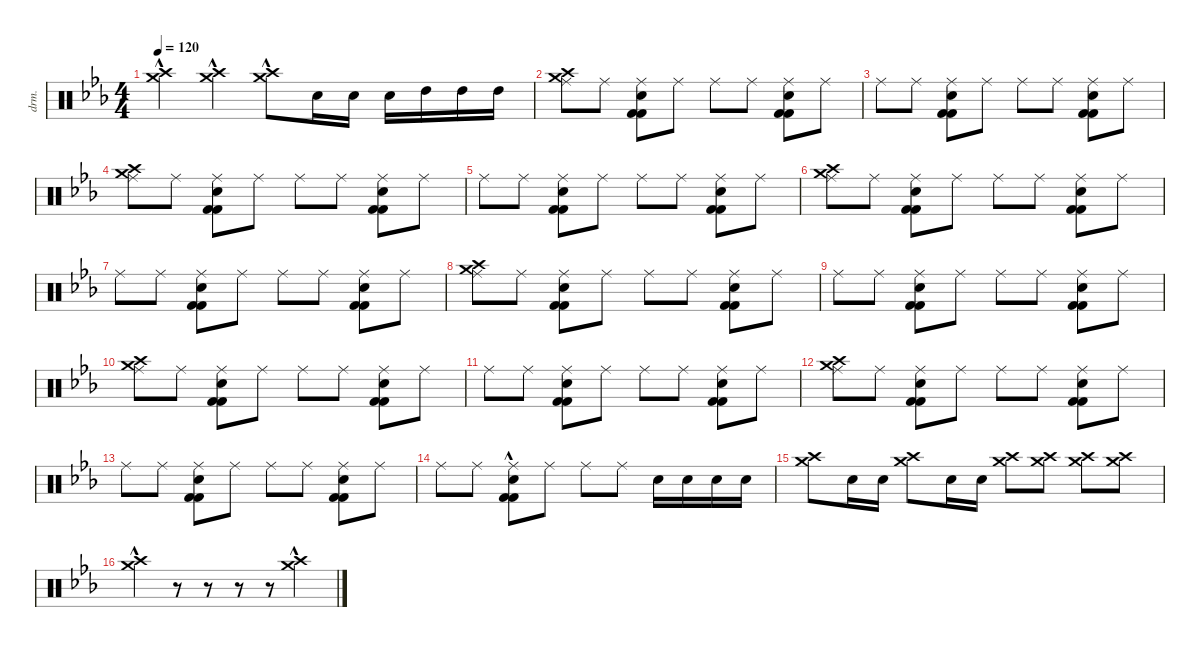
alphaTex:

\defaultSystemsLayout 4
\hideDynamics
\bracketExtendMode nobrackets
\otherSystemsTrackNameOrientation horizontal
\track ("Percussion" "drm.") {instrument percussion}
\staff {score}
\articulation defaults
\ts (4 4)
\tempo 120
\clef neutral
\ks eb
("Crash high (hit)"{hac acc forcenatural} "Crash medium (hit)"{hac acc forcenatural}).4{dy f beam Down} ("Crash high (hit)"{hac acc forcenatural} "Crash medium (hit)"{hac acc forcenatural}).4{beam Down} ("Crash high (hit)"{hac acc forcenatural} "Crash medium (hit)"{hac acc forcenatural}).8{beam Down} "Snare (hit) 2"{acc forcenatural}.16{beam Down} "Snare (hit) 2"{acc forcenatural}.16{beam Down} "Snare (hit) 2"{acc forcenatural}.16{beam Down} "High Tom (hit)"{acc forcenatural}.16{beam Down} "High Tom (hit)"{acc forcenatural}.16{beam Down} "High Tom (hit)"{acc forcenatural}.16{beam Down} |
("Crash high (hit)"{acc forcenatural} "Crash medium (hit)"{acc forcenatural} "Ride (middle)"{acc forcenatural}).8{beam Down} "Ride (middle)"{acc forcenatural}.8{beam Down} ("Ride (middle)"{acc forcenatural} "Snare (hit) 2"{acc forcenatural} "Kick (hit) 2"{acc forcenatural} "Kick (hit) 2"{acc forcenatural}).8{beam Down} "Ride (middle)"{acc forcenatural}.8{beam Down} "Ride (middle)"{acc forcenatural}.8{beam Down} "Ride (middle)"{acc forcenatural}.8{beam Down} ("Ride (middle)"{acc forcenatural} "Snare (hit) 2"{acc forcenatural} "Kick (hit) 2"{acc forcenatural} "Kick (hit) 2"{acc forcenatural}).8{beam Down} "Ride (middle)"{acc forcenatural}.8{beam Down} |
"Ride (middle)"{acc forcenatural}.8{beam Down} "Ride (middle)"{acc forcenatural}.8{beam Down} ("Ride (middle)"{acc forcenatural} "Snare (hit) 2"{acc forcenatural} "Kick (hit) 2"{acc forcenatural} "Kick (hit) 2"{acc forcenatural}).8{beam Down} "Ride (middle)"{acc forcenatural}.8{beam Down} "Ride (middle)"{acc forcenatural}.8{beam Down} "Ride (middle)"{acc forcenatural}.8{beam Down} ("Ride (middle)"{acc forcenatural} "Snare (hit) 2"{acc forcenatural} "Kick (hit) 2"{acc forcenatural} "Kick (hit) 2"{acc forcenatural}).8{beam Down} "Ride (middle)"{acc forcenatural}.8{beam Down} |
("Crash high (hit)"{acc forcenatural} "Crash medium (hit)"{acc forcenatural} "Ride (middle)"{acc forcenatural}).8{beam Down} "Ride (middle)"{acc forcenatural}.8{beam Down} ("Ride (middle)"{acc forcenatural} "Snare (hit) 2"{acc forcenatural} "Kick (hit) 2"{acc forcenatural} "Kick (hit) 2"{acc forcenatural}).8{beam Down} "Ride (middle)"{acc forcenatural}.8{beam Down} "Ride (middle)"{acc forcenatural}.8{beam Down} "Ride (middle)"{acc forcenatural}.8{beam Down} ("Ride (middle)"{acc forcenatural} "Snare (hit) 2"{acc forcenatural} "Kick (hit) 2"{acc forcenatural} "Kick (hit) 2"{acc forcenatural}).8{beam Down} "Ride (middle)"{acc forcenatural}.8{beam Down} |
"Ride (middle)"{acc forcenatural}.8{beam Down} "Ride (middle)"{acc forcenatural}.8{beam Down} ("Ride (middle)"{acc forcenatural} "Snare (hit) 2"{acc forcenatural} "Kick (hit) 2"{acc forcenatural} "Kick (hit) 2"{acc forcenatural}).8{beam Down} "Ride (middle)"{acc forcenatural}.8{beam Down} "Ride (middle)"{acc forcenatural}.8{beam Down} "Ride (middle)"{acc forcenatural}.8{beam Down} ("Ride (middle)"{acc forcenatural} "Snare (hit) 2"{acc forcenatural} "Kick (hit) 2"{acc forcenatural} "Kick (hit) 2"{acc forcenatural}).8{beam Down} "Ride (middle)"{acc forcenatural}.8{beam Down} |
("Crash high (hit)"{acc forcenatural} "Crash medium (hit)"{acc forcenatural} "Ride (middle)"{acc forcenatural}).8{beam Down} "Ride (middle)"{acc forcenatural}.8{beam Down} ("Ride (middle)"{acc forcenatural} "Snare (hit) 2"{acc forcenatural} "Kick (hit) 2"{acc forcenatural} "Kick (hit) 2"{acc forcenatural}).8{beam Down} "Ride (middle)"{acc forcenatural}.8{beam Down} "Ride (middle)"{acc forcenatural}.8{beam Down} "Ride (middle)"{acc forcenatural}.8{beam Down} ("Ride (middle)"{acc forcenatural} "Snare (hit) 2"{acc forcenatural} "Kick (hit) 2"{acc forcenatural} "Kick (hit) 2"{acc forcenatural}).8{beam Down} "Ride (middle)"{acc forcenatural}.8{beam Down} |
"Ride (middle)"{acc forcenatural}.8{beam Down} "Ride (middle)"{acc forcenatural}.8{beam Down} ("Ride (middle)"{acc forcenatural} "Snare (hit) 2"{acc forcenatural} "Kick (hit) 2"{acc forcenatural} "Kick (hit) 2"{acc forcenatural}).8{beam Down} "Ride (middle)"{acc forcenatural}.8{beam Down} "Ride (middle)"{acc forcenatural}.8{beam Down} "Ride (middle)"{acc forcenatural}.8{beam Down} ("Ride (middle)"{acc forcenatural} "Snare (hit) 2"{acc forcenatural} "Kick (hit) 2"{acc forcenatural} "Kick (hit) 2"{acc forcenatural}).8{beam Down} "Ride (middle)"{acc forcenatural}.8{beam Down} |
("Crash high (hit)"{acc forcenatural} "Crash medium (hit)"{acc forcenatural} "Ride (middle)"{acc forcenatural}).8{beam Down} "Ride (middle)"{acc forcenatural}.8{beam Down} ("Ride (middle)"{acc forcenatural} "Snare (hit) 2"{acc forcenatural} "Kick (hit) 2"{acc forcenatural} "Kick (hit) 2"{acc forcenatural}).8{beam Down} "Ride (middle)"{acc forcenatural}.8{beam Down} "Ride (middle)"{acc forcenatural}.8{beam Down} "Ride (middle)"{acc forcenatural}.8{beam Down} ("Ride (middle)"{acc forcenatural} "Snare (hit) 2"{acc forcenatural} "Kick (hit) 2"{acc forcenatural} "Kick (hit) 2"{acc forcenatural}).8{beam Down} "Ride (middle)"{acc forcenatural}.8{beam Down} |
"Ride (middle)"{acc forcenatural}.8{beam Down} "Ride (middle)"{acc forcenatural}.8{beam Down} ("Ride (middle)"{acc forcenatural} "Snare (hit) 2"{acc forcenatural} "Kick (hit) 2"{acc forcenatural} "Kick (hit) 2"{acc forcenatural}).8{beam Down} "Ride (middle)"{acc forcenatural}.8{beam Down} "Ride (middle)"{acc forcenatural}.8{beam Down} "Ride (middle)"{acc forcenatural}.8{beam Down} ("Ride (middle)"{acc forcenatural} "Snare (hit) 2"{acc forcenatural} "Kick (hit) 2"{acc forcenatural} "Kick (hit) 2"{acc forcenatural}).8{beam Down} "Ride (middle)"{acc forcenatural}.8{beam Down} |
("Crash high (hit)"{acc forcenatural} "Crash medium (hit)"{acc forcenatural} "Ride (middle)"{acc forcenatural}).8{beam Down} "Ride (middle)"{acc forcenatural}.8{beam Down} ("Ride (middle)"{acc forcenatural} "Snare (hit) 2"{acc forcenatural} "Kick (hit) 2"{acc forcenatural} "Kick (hit) 2"{acc forcenatural}).8{beam Down} "Ride (middle)"{acc forcenatural}.8{beam Down} "Ride (middle)"{acc forcenatural}.8{beam Down} "Ride (middle)"{acc forcenatural}.8{beam Down} ("Ride (middle)"{acc forcenatural} "Snare (hit) 2"{acc forcenatural} "Kick (hit) 2"{acc forcenatural} "Kick (hit) 2"{acc forcenatural}).8{beam Down} "Ride (middle)"{acc forcenatural}.8{beam Down} |
"Ride (middle)"{acc forcenatural}.8{beam Down} "Ride (middle)"{acc forcenatural}.8{beam Down} ("Ride (middle)"{acc forcenatural} "Snare (hit) 2"{acc forcenatural} "Kick (hit) 2"{acc forcenatural} "Kick (hit) 2"{acc forcenatural}).8{beam Down} "Ride (middle)"{acc forcenatural}.8{beam Down} "Ride (middle)"{acc forcenatural}.8{beam Down} "Ride (middle)"{acc forcenatural}.8{beam Down} ("Ride (middle)"{acc forcenatural} "Snare (hit) 2"{acc forcenatural} "Kick (hit) 2"{acc forcenatural} "Kick (hit) 2"{acc forcenatural}).8{beam Down} "Ride (middle)"{acc forcenatural}.8{beam Down} |
("Crash high (hit)"{acc forcenatural} "Crash medium (hit)"{acc forcenatural} "Ride (middle)"{acc forcenatural}).8{beam Down} "Ride (middle)"{acc forcenatural}.8{beam Down} ("Ride (middle)"{acc forcenatural} "Snare (hit) 2"{acc forcenatural} "Kick (hit) 2"{acc forcenatural} "Kick (hit) 2"{acc forcenatural}).8{beam Down} "Ride (middle)"{acc forcenatural}.8{beam Down} "Ride (middle)"{acc forcenatural}.8{beam Down} "Ride (middle)"{acc forcenatural}.8{beam Down} ("Ride (middle)"{acc forcenatural} "Snare (hit) 2"{acc forcenatural} "Kick (hit) 2"{acc forcenatural} "Kick (hit) 2"{acc forcenatural}).8{beam Down} "Ride (middle)"{acc forcenatural}.8{beam Down} |
"Ride (middle)"{acc forcenatural}.8{beam Down} "Ride (middle)"{acc forcenatural}.8{beam Down} ("Ride (middle)"{acc forcenatural} "Snare (hit) 2"{acc forcenatural} "Kick (hit) 2"{acc forcenatural} "Kick (hit) 2"{acc forcenatural}).8{beam Down} "Ride (middle)"{acc forcenatural}.8{beam Down} "Ride (middle)"{acc forcenatural}.8{beam Down} "Ride (middle)"{acc forcenatural}.8{beam Down} ("Ride (middle)"{acc forcenatural} "Snare (hit) 2"{acc forcenatural} "Kick (hit) 2"{acc forcenatural} "Kick (hit) 2"{acc forcenatural}).8{beam Down} "Ride (middle)"{acc forcenatural}.8{beam Down} |
"Ride (middle)"{acc forcenatural}.8{beam Down} "Ride (middle)"{acc forcenatural}.8{beam Down} ("Ride (middle)"{acc forcenatural} "Snare (hit) 2"{acc forcenatural} "Kick (hit) 2"{hac acc forcenatural} "Kick (hit) 2"{acc forcenatural}).8{beam Down} "Ride (middle)"{acc forcenatural}.8{beam Down} "Ride (middle)"{acc forcenatural}.8{beam Down} "Ride (middle)"{acc forcenatural}.8{beam Down} "Snare (hit) 2"{acc forcenatural}.16{beam Down} "Snare (hit) 2"{acc forcenatural}.16{beam Down} "Snare (hit) 2"{acc forcenatural}.16{beam Down} "Snare (hit) 2"{acc forcenatural}.16{beam Down} |
("Crash high (hit)"{acc forcenatural} "Crash medium (hit)"{acc forcenatural}).8{beam Down} "Snare (hit) 2"{acc forcenatural}.16{beam Down} "Snare (hit) 2"{acc forcenatural}.16{beam Down} ("Crash high (hit)"{acc forcenatural} "Crash medium (hit)"{acc forcenatural}).8{beam Down} "Snare (hit) 2"{acc forcenatural}.16{beam Down} "Snare (hit) 2"{acc forcenatural}.16{beam Down} ("Crash high (hit)"{acc forcenatural} "Crash medium (hit)"{acc forcenatural}).8{beam Down} ("Crash high (hit)"{acc forcenatural} "Crash medium (hit)"{acc forcenatural}).8{beam Down} ("Crash high (hit)"{acc forcenatural} "Crash medium (hit)"{acc forcenatural}).8{beam Down} ("Crash high (hit)"{acc forcenatural} "Crash medium (hit)"{acc forcenatural}).8{beam Down} |
("Crash high (hit)"{hac acc forcenatural} "Crash medium (hit)"{hac acc forcenatural}).4{beam Down} r.8{beam Down} r.8{beam Down} r.8{beam Down} r.8{beam Down} ("Crash high (hit)"{hac acc forcenatural} "Crash medium (hit)"{hac acc forcenatural}).4{beam Down}
